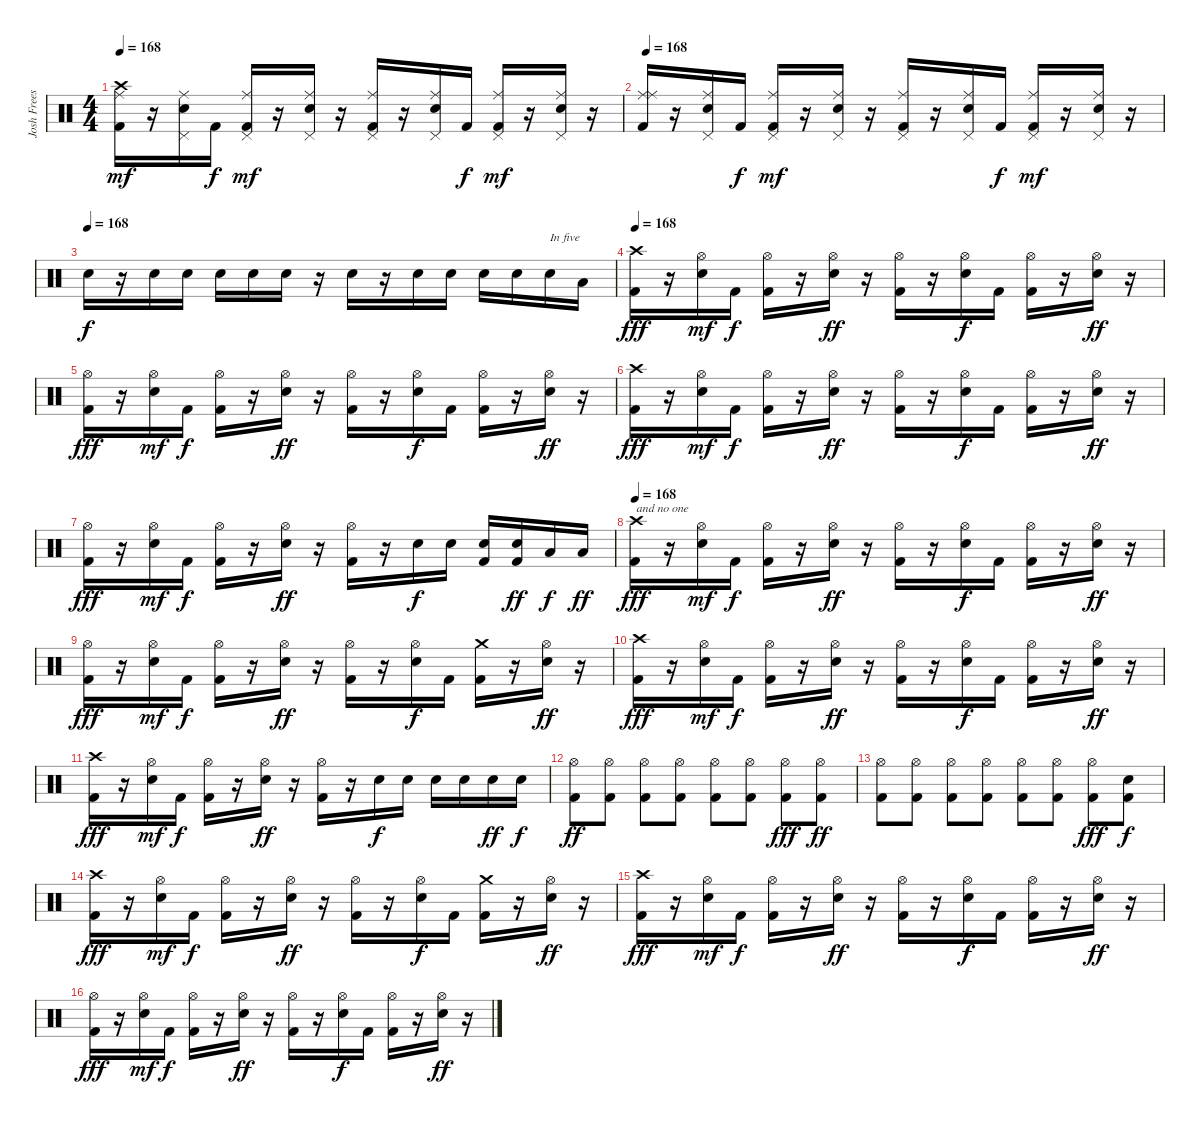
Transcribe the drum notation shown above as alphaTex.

\track ("Josh Freese" "Josh Frees") {instrument percussion}
\staff {score}
\articulation defaults
\ts (4 4)
\tempo 168
\clef neutral
\ks c
("Crash high (hit)" "Kick (hit) 2" "Ride (middle)").16{dy mf} r.16 ("Ride (middle)" "Electric Snare (hit)" "Pedal Hi-Hat (hit)").16 "Kick (hit) 2".16{dy f} ("Ride (middle)" "Kick (hit) 2" "Pedal Hi-Hat (hit)").16{dy mf} r.16 ("Ride (middle)" "Electric Snare (hit)" "Pedal Hi-Hat (hit)").16 r.16 ("Ride (middle)" "Kick (hit) 2" "Pedal Hi-Hat (hit)").16 r.16 ("Ride (middle)" "Electric Snare (hit)" "Pedal Hi-Hat (hit)").16 "Kick (hit) 2".16{dy f} ("Ride (middle)" "Kick (hit) 2" "Pedal Hi-Hat (hit)").16{dy mf} r.16 ("Ride (middle)" "Electric Snare (hit)" "Pedal Hi-Hat (hit)").16 r.16 |
\tempo 168
("Ride (middle)" "Kick (hit) 2" "Ride (middle)").16 r.16 ("Ride (middle)" "Electric Snare (hit)" "Pedal Hi-Hat (hit)").16 "Kick (hit) 2".16{dy f} ("Ride (middle)" "Kick (hit) 2" "Pedal Hi-Hat (hit)").16{dy mf} r.16 ("Ride (middle)" "Electric Snare (hit)" "Pedal Hi-Hat (hit)").16 r.16 ("Ride (middle)" "Kick (hit) 2" "Pedal Hi-Hat (hit)").16 r.16 ("Ride (middle)" "Electric Snare (hit)" "Pedal Hi-Hat (hit)").16 "Kick (hit) 2".16{dy f} ("Ride (middle)" "Kick (hit) 2" "Pedal Hi-Hat (hit)").16{dy mf} r.16 ("Ride (middle)" "Electric Snare (hit)" "Pedal Hi-Hat (hit)").16 r.16 |
\tempo (168)
"Electric Snare (hit)".16{dy f} r.16 "Electric Snare (hit)".16 "Electric Snare (hit)".16 "Electric Snare (hit)".16 "Electric Snare (hit)".16 "Electric Snare (hit)".16 r.16 "Electric Snare (hit)".16 r.16 "Electric Snare (hit)".16 "Electric Snare (hit)".16 "Electric Snare (hit)".16 "Electric Snare (hit)".16 "Electric Snare (hit)".16{txt "In five "} "Low Floor Tom (hit)".16 |
\tempo 168
("Crash high (hit)" "Kick (hit) 2").16{dy fff} r.16 ("Hi-Hat (open)" "Electric Snare (hit)").16{dy mf} "Kick (hit) 2".16{dy f} ("Hi-Hat (open)" "Kick (hit) 2").16 r.16 ("Hi-Hat (open)" "Electric Snare (hit)").16{dy ff} r.16 ("Hi-Hat (open)" "Kick (hit) 2").16 r.16 ("Hi-Hat (open)" "Electric Snare (hit)").16{dy f} "Kick (hit) 2".16 ("Hi-Hat (open)" "Kick (hit) 2").16 r.16 ("Hi-Hat (open)" "Electric Snare (hit)").16{dy ff} r.16 |
("Hi-Hat (open)" "Kick (hit) 2").16{dy fff} r.16 ("Hi-Hat (open)" "Electric Snare (hit)").16{dy mf} "Kick (hit) 2".16{dy f} ("Hi-Hat (open)" "Kick (hit) 2").16 r.16 ("Hi-Hat (open)" "Electric Snare (hit)").16{dy ff} r.16 ("Hi-Hat (open)" "Kick (hit) 2").16 r.16 ("Hi-Hat (open)" "Electric Snare (hit)").16{dy f} "Kick (hit) 2".16 ("Hi-Hat (open)" "Kick (hit) 2").16 r.16 ("Hi-Hat (open)" "Electric Snare (hit)").16{dy ff} r.16 |
("Crash high (hit)" "Kick (hit) 2").16{dy fff} r.16 ("Hi-Hat (open)" "Electric Snare (hit)").16{dy mf} "Kick (hit) 2".16{dy f} ("Hi-Hat (open)" "Kick (hit) 2").16 r.16 ("Hi-Hat (open)" "Electric Snare (hit)").16{dy ff} r.16 ("Hi-Hat (open)" "Kick (hit) 2").16 r.16 ("Hi-Hat (open)" "Electric Snare (hit)").16{dy f} "Kick (hit) 2".16 ("Hi-Hat (open)" "Kick (hit) 2").16 r.16 ("Hi-Hat (open)" "Electric Snare (hit)").16{dy ff} r.16 |
("Hi-Hat (open)" "Kick (hit) 2").16{dy fff} r.16 ("Hi-Hat (open)" "Electric Snare (hit)").16{dy mf} "Kick (hit) 2".16{dy f} ("Hi-Hat (open)" "Kick (hit) 2").16 r.16 ("Hi-Hat (open)" "Electric Snare (hit)").16{dy ff} r.16 ("Hi-Hat (open)" "Kick (hit) 2").16 r.16 "Electric Snare (hit)".16{dy f} "Electric Snare (hit)".16 ("Electric Snare (hit)" "Kick (hit) 2").16 ("Electric Snare (hit)" "Kick (hit) 2").16{dy ff} "Low Tom (hit)".16{dy f} "Low Tom (hit)".16{dy ff} |
\tempo 168
("Crash high (hit)" "Kick (hit) 2").16{txt "and no one" dy fff} r.16 ("Hi-Hat (open)" "Electric Snare (hit)").16{dy mf} "Kick (hit) 2".16{dy f} ("Hi-Hat (open)" "Kick (hit) 2").16 r.16 ("Hi-Hat (open)" "Electric Snare (hit)").16{dy ff} r.16 ("Hi-Hat (open)" "Kick (hit) 2").16 r.16 ("Hi-Hat (open)" "Electric Snare (hit)").16{dy f} "Kick (hit) 2".16 ("Hi-Hat (open)" "Kick (hit) 2").16 r.16 ("Hi-Hat (open)" "Electric Snare (hit)").16{dy ff} r.16 |
("Hi-Hat (open)" "Kick (hit) 2").16{dy fff} r.16 ("Hi-Hat (open)" "Electric Snare (hit)").16{dy mf} "Kick (hit) 2".16{dy f} ("Hi-Hat (open)" "Kick (hit) 2").16 r.16 ("Hi-Hat (open)" "Electric Snare (hit)").16{dy ff} r.16 ("Hi-Hat (open)" "Kick (hit) 2").16 r.16 ("Hi-Hat (open)" "Electric Snare (hit)").16{dy f} "Kick (hit) 2".16 ("Crash medium (hit)" "Kick (hit) 2").16 r.16 ("Hi-Hat (open)" "Electric Snare (hit)").16{dy ff} r.16 |
("Crash high (hit)" "Kick (hit) 2").16{dy fff} r.16 ("Hi-Hat (open)" "Electric Snare (hit)").16{dy mf} "Kick (hit) 2".16{dy f} ("Hi-Hat (open)" "Kick (hit) 2").16 r.16 ("Hi-Hat (open)" "Electric Snare (hit)").16{dy ff} r.16 ("Hi-Hat (open)" "Kick (hit) 2").16 r.16 ("Hi-Hat (open)" "Electric Snare (hit)").16{dy f} "Kick (hit) 2".16 ("Hi-Hat (open)" "Kick (hit) 2").16 r.16 ("Hi-Hat (open)" "Electric Snare (hit)").16{dy ff} r.16 |
("Crash high (hit)" "Kick (hit) 2").16{dy fff} r.16 ("Hi-Hat (open)" "Electric Snare (hit)").16{dy mf} "Kick (hit) 2".16{dy f} ("Hi-Hat (open)" "Kick (hit) 2").16 r.16 ("Hi-Hat (open)" "Electric Snare (hit)").16{dy ff} r.16 ("Hi-Hat (open)" "Kick (hit) 2").16 r.16 "Electric Snare (hit)".16{dy f} "Electric Snare (hit)".16 "Electric Snare (hit)".16 "Electric Snare (hit)".16 "Electric Snare (hit)".16{dy ff} "Electric Snare (hit)".16{dy f} |
("Hi-Hat (open)" "Kick (hit) 2").8{dy ff} ("Hi-Hat (open)" "Kick (hit) 2").8 ("Hi-Hat (open)" "Kick (hit) 2").8 ("Hi-Hat (open)" "Kick (hit) 2").8 ("Hi-Hat (open)" "Kick (hit) 2").8 ("Hi-Hat (open)" "Kick (hit) 2").8 ("Hi-Hat (open)" "Kick (hit) 2").8{dy fff} ("Hi-Hat (open)" "Kick (hit) 2").8{dy ff} |
("Hi-Hat (open)" "Kick (hit) 2").8 ("Hi-Hat (open)" "Kick (hit) 2").8 ("Hi-Hat (open)" "Kick (hit) 2").8 ("Hi-Hat (open)" "Kick (hit) 2").8 ("Hi-Hat (open)" "Kick (hit) 2").8 ("Hi-Hat (open)" "Kick (hit) 2").8 ("Hi-Hat (open)" "Kick (hit) 2").8{dy fff} ("Kick (hit) 2" "Electric Snare (hit)").8{dy f} |
("Crash high (hit)" "Kick (hit) 2").16{dy fff} r.16 ("Hi-Hat (open)" "Electric Snare (hit)").16{dy mf} "Kick (hit) 2".16{dy f} ("Hi-Hat (open)" "Kick (hit) 2").16 r.16 ("Hi-Hat (open)" "Electric Snare (hit)").16{dy ff} r.16 ("Hi-Hat (open)" "Kick (hit) 2").16 r.16 ("Hi-Hat (open)" "Electric Snare (hit)").16{dy f} "Kick (hit) 2".16 ("Crash medium (hit)" "Kick (hit) 2").16 r.16 ("Hi-Hat (open)" "Electric Snare (hit)").16{dy ff} r.16 |
("Crash high (hit)" "Kick (hit) 2").16{dy fff} r.16 ("Hi-Hat (open)" "Electric Snare (hit)").16{dy mf} "Kick (hit) 2".16{dy f} ("Hi-Hat (open)" "Kick (hit) 2").16 r.16 ("Hi-Hat (open)" "Electric Snare (hit)").16{dy ff} r.16 ("Hi-Hat (open)" "Kick (hit) 2").16 r.16 ("Hi-Hat (open)" "Electric Snare (hit)").16{dy f} "Kick (hit) 2".16 ("Hi-Hat (open)" "Kick (hit) 2").16 r.16 ("Hi-Hat (open)" "Electric Snare (hit)").16{dy ff} r.16 |
("Hi-Hat (open)" "Kick (hit) 2").16{dy fff} r.16 ("Hi-Hat (open)" "Electric Snare (hit)").16{dy mf} "Kick (hit) 2".16{dy f} ("Hi-Hat (open)" "Kick (hit) 2").16 r.16 ("Hi-Hat (open)" "Electric Snare (hit)").16{dy ff} r.16 ("Hi-Hat (open)" "Kick (hit) 2").16 r.16 ("Hi-Hat (open)" "Electric Snare (hit)").16{dy f} "Kick (hit) 2".16 ("Hi-Hat (open)" "Kick (hit) 2").16 r.16 ("Hi-Hat (open)" "Electric Snare (hit)").16{dy ff} r.16
